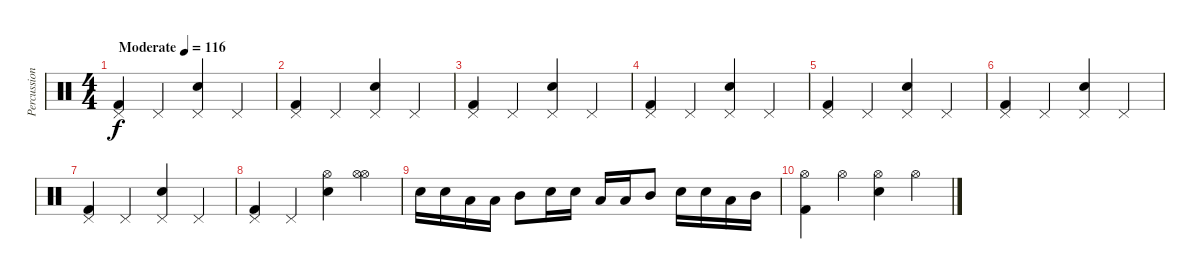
\track ("Percussion" "Percussion") {instrument percussion}
\staff {score}
\articulation defaults
\ts (4 4)
\tempo (116 "Moderate")
\clef neutral
\ks c
("Kick (hit) 2" "Pedal Hi-Hat (hit)").4{dy f} "Pedal Hi-Hat (hit)".4 ("Snare (hit) 2" "Pedal Hi-Hat (hit)").4 "Pedal Hi-Hat (hit)".4 |
("Kick (hit) 2" "Pedal Hi-Hat (hit)").4 "Pedal Hi-Hat (hit)".4 ("Snare (hit) 2" "Pedal Hi-Hat (hit)").4 "Pedal Hi-Hat (hit)".4 |
("Kick (hit) 2" "Pedal Hi-Hat (hit)").4 "Pedal Hi-Hat (hit)".4 ("Snare (hit) 2" "Pedal Hi-Hat (hit)").4 "Pedal Hi-Hat (hit)".4 |
("Kick (hit) 2" "Pedal Hi-Hat (hit)").4 "Pedal Hi-Hat (hit)".4 ("Snare (hit) 2" "Pedal Hi-Hat (hit)").4 "Pedal Hi-Hat (hit)".4 |
("Kick (hit) 2" "Pedal Hi-Hat (hit)").4 "Pedal Hi-Hat (hit)".4 ("Snare (hit) 2" "Pedal Hi-Hat (hit)").4 "Pedal Hi-Hat (hit)".4 |
("Kick (hit) 2" "Pedal Hi-Hat (hit)").4 "Pedal Hi-Hat (hit)".4 ("Snare (hit) 2" "Pedal Hi-Hat (hit)").4 "Pedal Hi-Hat (hit)".4 |
("Kick (hit) 2" "Pedal Hi-Hat (hit)").4 "Pedal Hi-Hat (hit)".4 ("Snare (hit) 2" "Pedal Hi-Hat (hit)").4 "Pedal Hi-Hat (hit)".4 |
("Kick (hit) 2" "Pedal Hi-Hat (hit)").4 "Pedal Hi-Hat (hit)".4 ("Snare (hit) 2" "Hi-Hat (open)").4 ("Hi-Hat (open)" "Hi-Hat (open)").4 |
"Snare (hit) 2".16 "Snare (hit) 2".16 "Low Tom (hit)".16 "Low Tom (hit)".16 "Mid Tom (hit)".8 "Snare (hit) 2".16 "Snare (hit) 2".16 "Low Tom (hit)".16 "Low Tom (hit)".16 "Mid Tom (hit)".8 "Snare (hit) 2".16 "Snare (hit) 2".16 "Low Tom (hit)".16 "Mid Tom (hit)".16 |
("Kick (hit) 2" "Hi-Hat (open)").4 "Hi-Hat (open)".4 ("Snare (hit) 2" "Hi-Hat (open)").4 "Hi-Hat (open)".4
